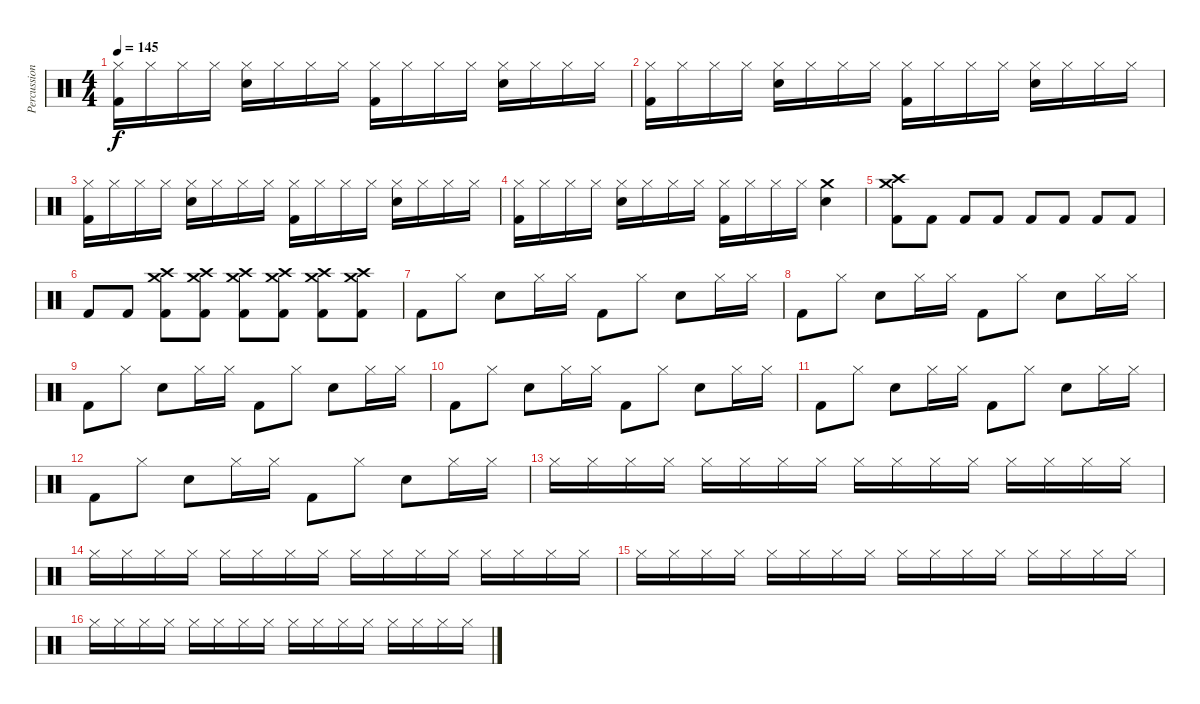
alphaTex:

\track ("Percussion" "Percussion") {instrument percussion}
\staff {score}
\articulation defaults
\ts (4 4)
\tempo 145
\clef neutral
\ks c
("Hi-Hat (closed)" "Kick (hit) 2").16{dy f} "Hi-Hat (closed)".16 "Hi-Hat (closed)".16 "Hi-Hat (closed)".16 ("Hi-Hat (closed)" "Electric Snare (hit)").16 "Hi-Hat (closed)".16 "Hi-Hat (closed)".16 "Hi-Hat (closed)".16 ("Hi-Hat (closed)" "Kick (hit) 2").16 "Hi-Hat (closed)".16 "Hi-Hat (closed)".16 "Hi-Hat (closed)".16 ("Hi-Hat (closed)" "Electric Snare (hit)").16 "Hi-Hat (closed)".16 "Hi-Hat (closed)".16 "Hi-Hat (closed)".16 |
("Hi-Hat (closed)" "Kick (hit) 2").16 "Hi-Hat (closed)".16 "Hi-Hat (closed)".16 "Hi-Hat (closed)".16 ("Hi-Hat (closed)" "Electric Snare (hit)").16 "Hi-Hat (closed)".16 "Hi-Hat (closed)".16 "Hi-Hat (closed)".16 ("Hi-Hat (closed)" "Kick (hit) 2").16 "Hi-Hat (closed)".16 "Hi-Hat (closed)".16 "Hi-Hat (closed)".16 ("Hi-Hat (closed)" "Electric Snare (hit)").16 "Hi-Hat (closed)".16 "Hi-Hat (closed)".16 "Hi-Hat (closed)".16 |
("Hi-Hat (closed)" "Kick (hit) 2").16 "Hi-Hat (closed)".16 "Hi-Hat (closed)".16 "Hi-Hat (closed)".16 ("Hi-Hat (closed)" "Electric Snare (hit)").16 "Hi-Hat (closed)".16 "Hi-Hat (closed)".16 "Hi-Hat (closed)".16 ("Hi-Hat (closed)" "Kick (hit) 2").16 "Hi-Hat (closed)".16 "Hi-Hat (closed)".16 "Hi-Hat (closed)".16 ("Hi-Hat (closed)" "Electric Snare (hit)").16 "Hi-Hat (closed)".16 "Hi-Hat (closed)".16 "Hi-Hat (closed)".16 |
("Hi-Hat (closed)" "Kick (hit) 2").16 "Hi-Hat (closed)".16 "Hi-Hat (closed)".16 "Hi-Hat (closed)".16 ("Hi-Hat (closed)" "Electric Snare (hit)").16 "Hi-Hat (closed)".16 "Hi-Hat (closed)".16 "Hi-Hat (closed)".16 ("Hi-Hat (closed)" "Kick (hit) 2").16 "Hi-Hat (closed)".16 "Hi-Hat (closed)".16 "Hi-Hat (closed)".16 ("Crash medium (hit)" "Electric Snare (hit)").4 |
("Crash medium (hit)" "Crash high (hit)" "Kick (hit) 2").8 "Kick (hit) 2".8 "Kick (hit) 2".8 "Kick (hit) 2".8 "Kick (hit) 2".8 "Kick (hit) 2".8 "Kick (hit) 2".8 "Kick (hit) 2".8 |
"Kick (hit) 2".8 "Kick (hit) 2".8 ("Crash high (hit)" "Crash medium (hit)" "Kick (hit) 2").8 ("Crash high (hit)" "Crash medium (hit)" "Kick (hit) 2").8 ("Crash high (hit)" "Crash medium (hit)" "Kick (hit) 2").8 ("Crash high (hit)" "Crash medium (hit)" "Kick (hit) 2").8 ("Crash high (hit)" "Crash medium (hit)" "Kick (hit) 2").8 ("Crash high (hit)" "Crash medium (hit)" "Kick (hit) 2").8 |
"Kick (hit) 2".8 "Hi-Hat (closed)".8 "Electric Snare (hit)".8 "Hi-Hat (closed)".16 "Hi-Hat (closed)".16 "Kick (hit) 2".8 "Hi-Hat (closed)".8 "Electric Snare (hit)".8 "Hi-Hat (closed)".16 "Hi-Hat (closed)".16 |
"Kick (hit) 2".8 "Hi-Hat (closed)".8 "Electric Snare (hit)".8 "Hi-Hat (closed)".16 "Hi-Hat (closed)".16 "Kick (hit) 2".8 "Hi-Hat (closed)".8 "Electric Snare (hit)".8 "Hi-Hat (closed)".16 "Hi-Hat (closed)".16 |
"Kick (hit) 2".8 "Hi-Hat (closed)".8 "Electric Snare (hit)".8 "Hi-Hat (closed)".16 "Hi-Hat (closed)".16 "Kick (hit) 2".8 "Hi-Hat (closed)".8 "Electric Snare (hit)".8 "Hi-Hat (closed)".16 "Hi-Hat (closed)".16 |
"Kick (hit) 2".8 "Hi-Hat (closed)".8 "Electric Snare (hit)".8 "Hi-Hat (closed)".16 "Hi-Hat (closed)".16 "Kick (hit) 2".8 "Hi-Hat (closed)".8 "Electric Snare (hit)".8 "Hi-Hat (closed)".16 "Hi-Hat (closed)".16 |
"Kick (hit) 2".8 "Hi-Hat (closed)".8 "Electric Snare (hit)".8 "Hi-Hat (closed)".16 "Hi-Hat (closed)".16 "Kick (hit) 2".8 "Hi-Hat (closed)".8 "Electric Snare (hit)".8 "Hi-Hat (closed)".16 "Hi-Hat (closed)".16 |
"Kick (hit) 2".8 "Hi-Hat (closed)".8 "Electric Snare (hit)".8 "Hi-Hat (closed)".16 "Hi-Hat (closed)".16 "Kick (hit) 2".8 "Hi-Hat (closed)".8 "Electric Snare (hit)".8 "Hi-Hat (closed)".16 "Hi-Hat (closed)".16 |
"Hi-Hat (closed)".16 "Hi-Hat (closed)".16 "Hi-Hat (closed)".16 "Hi-Hat (closed)".16 "Hi-Hat (closed)".16 "Hi-Hat (closed)".16 "Hi-Hat (closed)".16 "Hi-Hat (closed)".16 "Hi-Hat (closed)".16 "Hi-Hat (closed)".16 "Hi-Hat (closed)".16 "Hi-Hat (closed)".16 "Hi-Hat (closed)".16 "Hi-Hat (closed)".16 "Hi-Hat (closed)".16 "Hi-Hat (closed)".16 |
"Hi-Hat (closed)".16 "Hi-Hat (closed)".16 "Hi-Hat (closed)".16 "Hi-Hat (closed)".16 "Hi-Hat (closed)".16 "Hi-Hat (closed)".16 "Hi-Hat (closed)".16 "Hi-Hat (closed)".16 "Hi-Hat (closed)".16 "Hi-Hat (closed)".16 "Hi-Hat (closed)".16 "Hi-Hat (closed)".16 "Hi-Hat (closed)".16 "Hi-Hat (closed)".16 "Hi-Hat (closed)".16 "Hi-Hat (closed)".16 |
"Hi-Hat (closed)".16 "Hi-Hat (closed)".16 "Hi-Hat (closed)".16 "Hi-Hat (closed)".16 "Hi-Hat (closed)".16 "Hi-Hat (closed)".16 "Hi-Hat (closed)".16 "Hi-Hat (closed)".16 "Hi-Hat (closed)".16 "Hi-Hat (closed)".16 "Hi-Hat (closed)".16 "Hi-Hat (closed)".16 "Hi-Hat (closed)".16 "Hi-Hat (closed)".16 "Hi-Hat (closed)".16 "Hi-Hat (closed)".16 |
"Hi-Hat (closed)".16 "Hi-Hat (closed)".16 "Hi-Hat (closed)".16 "Hi-Hat (closed)".16 "Hi-Hat (closed)".16 "Hi-Hat (closed)".16 "Hi-Hat (closed)".16 "Hi-Hat (closed)".16 "Hi-Hat (closed)".16 "Hi-Hat (closed)".16 "Hi-Hat (closed)".16 "Hi-Hat (closed)".16 "Hi-Hat (closed)".16 "Hi-Hat (closed)".16 "Hi-Hat (closed)".16 "Hi-Hat (closed)".16
